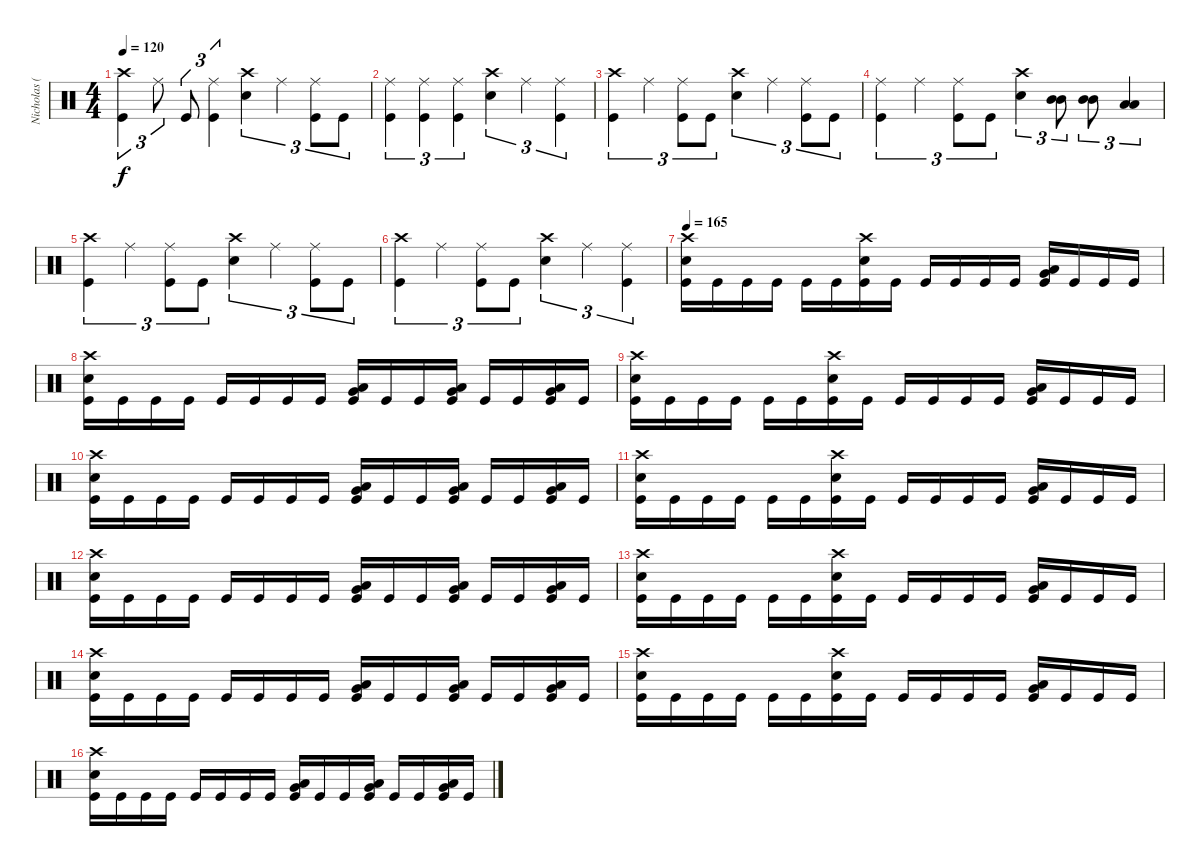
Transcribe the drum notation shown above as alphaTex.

\track ("Nicholas (Drums)" "Nicholas (") {instrument percussion}
\staff {score}
\articulation defaults
\ts (4 4)
\tempo 120
\clef neutral
\ks c
("Crash high (hit)" "Kick (hit)").4{tu (3 2) dy f} "Ride (middle)".8{tu (3 2)} "Kick (hit)".8{tu (3 2)} ("Ride (middle)" "Kick (hit)").4{tu (3 2)} ("Crash high (hit)" "Electric Snare (hit)").4{tu (3 2)} "Ride (middle)".4{tu (3 2)} ("Ride (middle)" "Kick (hit)").8{tu (3 2)} "Kick (hit)".8{tu (3 2)} |
("Ride (middle)" "Kick (hit)").4{tu (3 2)} ("Ride (middle)" "Kick (hit)").4{tu (3 2)} ("Ride (middle)" "Kick (hit)").4{tu (3 2)} ("Crash high (hit)" "Electric Snare (hit)").4{tu (3 2)} "Ride (middle)".4{tu (3 2)} ("Ride (middle)" "Kick (hit)").4{tu (3 2)} |
("Crash high (hit)" "Kick (hit)").4{tu (3 2)} "Ride (middle)".4{tu (3 2)} ("Ride (middle)" "Kick (hit)").8{tu (3 2)} "Kick (hit)".8{tu (3 2)} ("Crash high (hit)" "Electric Snare (hit)").4{tu (3 2)} "Ride (middle)".4{tu (3 2)} ("Ride (middle)" "Kick (hit)").8{tu (3 2)} "Kick (hit)".8{tu (3 2)} |
("Ride (middle)" "Kick (hit)").4{tu (3 2)} "Ride (middle)".4{tu (3 2)} ("Ride (middle)" "Kick (hit)").8{tu (3 2)} "Kick (hit)".8{tu (3 2)} ("Crash high (hit)" "Electric Snare (hit)").4{tu (3 2)} ("Mid Tom (hit)" "Mid Tom (hit)").8{tu (3 2)} ("Mid Tom (hit)" "Mid Tom (hit)").8{tu (3 2)} ("Low Tom (hit)" "Low Tom (hit)").4{tu (3 2)} |
("Crash high (hit)" "Kick (hit)").4{tu (3 2)} "Ride (middle)".4{tu (3 2)} ("Ride (middle)" "Kick (hit)").8{tu (3 2)} "Kick (hit)".8{tu (3 2)} ("Crash high (hit)" "Electric Snare (hit)").4{tu (3 2)} "Ride (middle)".4{tu (3 2)} ("Ride (middle)" "Kick (hit)").8{tu (3 2)} "Kick (hit)".8{tu (3 2)} |
("Crash high (hit)" "Kick (hit)").4{tu (3 2)} "Ride (middle)".4{tu (3 2)} ("Ride (middle)" "Kick (hit)").8{tu (3 2)} "Kick (hit)".8{tu (3 2)} ("Crash high (hit)" "Electric Snare (hit)").4{tu (3 2)} "Ride (middle)".4{tu (3 2)} ("Ride (middle)" "Kick (hit)").4{tu (3 2)} |
\tempo 165
("Crash high (hit)" "Electric Snare (hit)" "Kick (hit)").16 "Kick (hit)".16 "Kick (hit)".16 "Kick (hit)".16 "Kick (hit)".16 "Kick (hit)".16 ("Crash high (hit)" "Electric Snare (hit)" "Kick (hit)").16 "Kick (hit)".16 "Kick (hit)".16 "Kick (hit)".16 "Kick (hit)".16 "Kick (hit)".16 ("Low Tom (hit)" "Very Low Tom (hit)" "Kick (hit)").16 "Kick (hit)".16 "Kick (hit)".16 "Kick (hit)".16 |
("Crash high (hit)" "Electric Snare (hit)" "Kick (hit)").16 "Kick (hit)".16 "Kick (hit)".16 "Kick (hit)".16 "Kick (hit)".16 "Kick (hit)".16 "Kick (hit)".16 "Kick (hit)".16 ("Low Tom (hit)" "Very Low Tom (hit)" "Kick (hit)").16 "Kick (hit)".16 "Kick (hit)".16 ("Low Tom (hit)" "Very Low Tom (hit)" "Kick (hit)").16 "Kick (hit)".16 "Kick (hit)".16 ("Low Tom (hit)" "Very Low Tom (hit)" "Kick (hit)").16 "Kick (hit)".16 |
("Crash high (hit)" "Electric Snare (hit)" "Kick (hit)").16 "Kick (hit)".16 "Kick (hit)".16 "Kick (hit)".16 "Kick (hit)".16 "Kick (hit)".16 ("Crash high (hit)" "Electric Snare (hit)" "Kick (hit)").16 "Kick (hit)".16 "Kick (hit)".16 "Kick (hit)".16 "Kick (hit)".16 "Kick (hit)".16 ("Low Tom (hit)" "Very Low Tom (hit)" "Kick (hit)").16 "Kick (hit)".16 "Kick (hit)".16 "Kick (hit)".16 |
("Crash high (hit)" "Electric Snare (hit)" "Kick (hit)").16 "Kick (hit)".16 "Kick (hit)".16 "Kick (hit)".16 "Kick (hit)".16 "Kick (hit)".16 "Kick (hit)".16 "Kick (hit)".16 ("Low Tom (hit)" "Very Low Tom (hit)" "Kick (hit)").16 "Kick (hit)".16 "Kick (hit)".16 ("Low Tom (hit)" "Very Low Tom (hit)" "Kick (hit)").16 "Kick (hit)".16 "Kick (hit)".16 ("Low Tom (hit)" "Very Low Tom (hit)" "Kick (hit)").16 "Kick (hit)".16 |
("Crash high (hit)" "Electric Snare (hit)" "Kick (hit)").16 "Kick (hit)".16 "Kick (hit)".16 "Kick (hit)".16 "Kick (hit)".16 "Kick (hit)".16 ("Crash high (hit)" "Electric Snare (hit)" "Kick (hit)").16 "Kick (hit)".16 "Kick (hit)".16 "Kick (hit)".16 "Kick (hit)".16 "Kick (hit)".16 ("Low Tom (hit)" "Very Low Tom (hit)" "Kick (hit)").16 "Kick (hit)".16 "Kick (hit)".16 "Kick (hit)".16 |
("Crash high (hit)" "Electric Snare (hit)" "Kick (hit)").16 "Kick (hit)".16 "Kick (hit)".16 "Kick (hit)".16 "Kick (hit)".16 "Kick (hit)".16 "Kick (hit)".16 "Kick (hit)".16 ("Low Tom (hit)" "Very Low Tom (hit)" "Kick (hit)").16 "Kick (hit)".16 "Kick (hit)".16 ("Low Tom (hit)" "Very Low Tom (hit)" "Kick (hit)").16 "Kick (hit)".16 "Kick (hit)".16 ("Low Tom (hit)" "Very Low Tom (hit)" "Kick (hit)").16 "Kick (hit)".16 |
("Crash high (hit)" "Electric Snare (hit)" "Kick (hit)").16 "Kick (hit)".16 "Kick (hit)".16 "Kick (hit)".16 "Kick (hit)".16 "Kick (hit)".16 ("Crash high (hit)" "Electric Snare (hit)" "Kick (hit)").16 "Kick (hit)".16 "Kick (hit)".16 "Kick (hit)".16 "Kick (hit)".16 "Kick (hit)".16 ("Low Tom (hit)" "Very Low Tom (hit)" "Kick (hit)").16 "Kick (hit)".16 "Kick (hit)".16 "Kick (hit)".16 |
("Crash high (hit)" "Electric Snare (hit)" "Kick (hit)").16 "Kick (hit)".16 "Kick (hit)".16 "Kick (hit)".16 "Kick (hit)".16 "Kick (hit)".16 "Kick (hit)".16 "Kick (hit)".16 ("Low Tom (hit)" "Very Low Tom (hit)" "Kick (hit)").16 "Kick (hit)".16 "Kick (hit)".16 ("Low Tom (hit)" "Very Low Tom (hit)" "Kick (hit)").16 "Kick (hit)".16 "Kick (hit)".16 ("Low Tom (hit)" "Very Low Tom (hit)" "Kick (hit)").16 "Kick (hit)".16 |
("Crash high (hit)" "Electric Snare (hit)" "Kick (hit)").16 "Kick (hit)".16 "Kick (hit)".16 "Kick (hit)".16 "Kick (hit)".16 "Kick (hit)".16 ("Crash high (hit)" "Electric Snare (hit)" "Kick (hit)").16 "Kick (hit)".16 "Kick (hit)".16 "Kick (hit)".16 "Kick (hit)".16 "Kick (hit)".16 ("Low Tom (hit)" "Very Low Tom (hit)" "Kick (hit)").16 "Kick (hit)".16 "Kick (hit)".16 "Kick (hit)".16 |
("Crash high (hit)" "Electric Snare (hit)" "Kick (hit)").16 "Kick (hit)".16 "Kick (hit)".16 "Kick (hit)".16 "Kick (hit)".16 "Kick (hit)".16 "Kick (hit)".16 "Kick (hit)".16 ("Low Tom (hit)" "Very Low Tom (hit)" "Kick (hit)").16 "Kick (hit)".16 "Kick (hit)".16 ("Low Tom (hit)" "Very Low Tom (hit)" "Kick (hit)").16 "Kick (hit)".16 "Kick (hit)".16 ("Low Tom (hit)" "Very Low Tom (hit)" "Kick (hit)").16 "Kick (hit)".16
